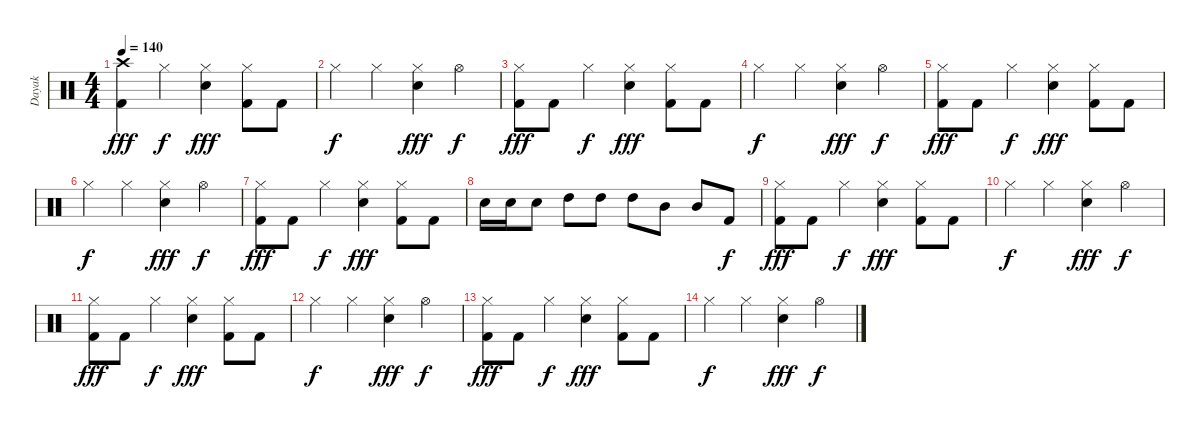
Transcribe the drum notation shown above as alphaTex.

\track ("Dayak" "Dayak") {instrument percussion}
\staff {score}
\articulation defaults
\ts (4 4)
\tempo 140
\clef neutral
\ks c
("Crash high (hit)" "Kick (hit) 2").4{dy fff} "Hi-Hat (closed)".4{dy f} ("Hi-Hat (closed)" "Snare (hit) 2").4{dy fff} ("Hi-Hat (closed)" "Kick (hit) 2").8 "Kick (hit) 2".8 |
"Hi-Hat (closed)".4{dy f} "Hi-Hat (closed)".4 ("Hi-Hat (closed)" "Snare (hit) 2").4{dy fff} "Hi-Hat (open)".4{dy f} |
("Hi-Hat (closed)" "Kick (hit) 2").8{dy fff} "Kick (hit) 2".8 "Hi-Hat (closed)".4{dy f} ("Hi-Hat (closed)" "Snare (hit) 2").4{dy fff} ("Hi-Hat (closed)" "Kick (hit) 2").8 "Kick (hit) 2".8 |
"Hi-Hat (closed)".4{dy f} "Hi-Hat (closed)".4 ("Hi-Hat (closed)" "Snare (hit) 2").4{dy fff} "Hi-Hat (open)".4{dy f} |
("Hi-Hat (closed)" "Kick (hit) 2").8{dy fff} "Kick (hit) 2".8 "Hi-Hat (closed)".4{dy f} ("Hi-Hat (closed)" "Snare (hit) 2").4{dy fff} ("Hi-Hat (closed)" "Kick (hit) 2").8 "Kick (hit) 2".8 |
"Hi-Hat (closed)".4{dy f} "Hi-Hat (closed)".4 ("Hi-Hat (closed)" "Snare (hit) 2").4{dy fff} "Hi-Hat (open)".4{dy f} |
("Hi-Hat (closed)" "Kick (hit) 2").8{dy fff} "Kick (hit) 2".8 "Hi-Hat (closed)".4{dy f} ("Hi-Hat (closed)" "Snare (hit) 2").4{dy fff} ("Hi-Hat (closed)" "Kick (hit) 2").8 "Kick (hit) 2".8 |
"Snare (hit) 2".16 "Snare (hit) 2".16 "Snare (hit) 2".8 "High Tom (hit)".8 "High Tom (hit)".8 "High Tom (hit)".8 "Mid Tom (hit)".8 "Mid Tom (hit)".8 "Kick (hit) 2".8{dy f} |
("Hi-Hat (closed)" "Kick (hit) 2").8{dy fff} "Kick (hit) 2".8 "Hi-Hat (closed)".4{dy f} ("Hi-Hat (closed)" "Snare (hit) 2").4{dy fff} ("Hi-Hat (closed)" "Kick (hit) 2").8 "Kick (hit) 2".8 |
"Hi-Hat (closed)".4{dy f} "Hi-Hat (closed)".4 ("Hi-Hat (closed)" "Snare (hit) 2").4{dy fff} "Hi-Hat (open)".4{dy f} |
("Hi-Hat (closed)" "Kick (hit) 2").8{dy fff} "Kick (hit) 2".8 "Hi-Hat (closed)".4{dy f} ("Hi-Hat (closed)" "Snare (hit) 2").4{dy fff} ("Hi-Hat (closed)" "Kick (hit) 2").8 "Kick (hit) 2".8 |
"Hi-Hat (closed)".4{dy f} "Hi-Hat (closed)".4 ("Hi-Hat (closed)" "Snare (hit) 2").4{dy fff} "Hi-Hat (open)".4{dy f} |
("Hi-Hat (closed)" "Kick (hit) 2").8{dy fff} "Kick (hit) 2".8 "Hi-Hat (closed)".4{dy f} ("Hi-Hat (closed)" "Snare (hit) 2").4{dy fff} ("Hi-Hat (closed)" "Kick (hit) 2").8 "Kick (hit) 2".8 |
"Hi-Hat (closed)".4{dy f} "Hi-Hat (closed)".4 ("Hi-Hat (closed)" "Snare (hit) 2").4{dy fff} "Hi-Hat (open)".4{dy f}
